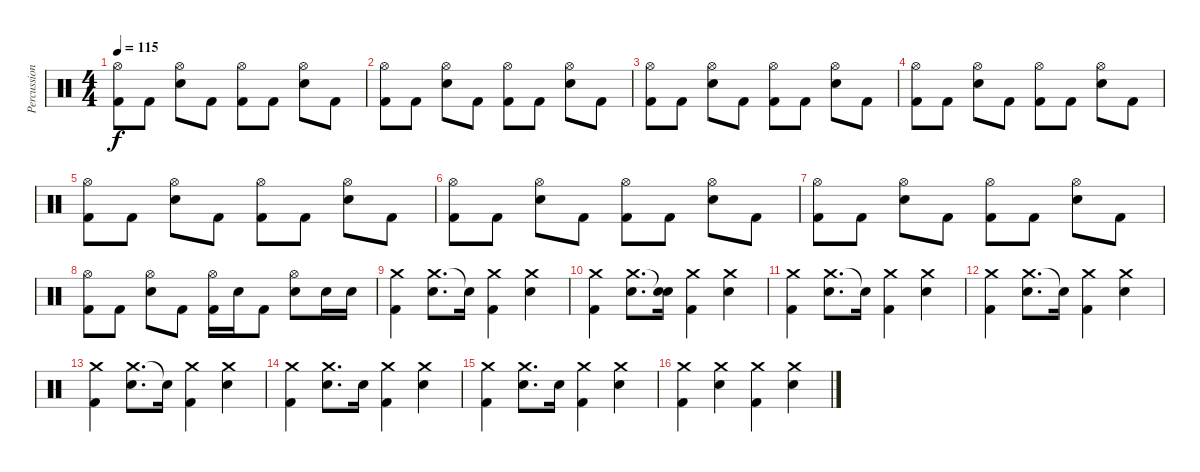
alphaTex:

\track ("Percussions" "Percussion") {instrument percussion}
\staff {score}
\articulation defaults
\ts (4 4)
\tempo 115
\clef neutral
\ks c
("Hi-Hat (open)" "Kick (hit) 2").8{dy f} "Kick (hit) 2".8 ("Hi-Hat (open)" "Electric Snare (hit)").8 "Kick (hit) 2".8 ("Hi-Hat (open)" "Kick (hit) 2").8 "Kick (hit) 2".8 ("Hi-Hat (open)" "Electric Snare (hit)").8 "Kick (hit) 2".8 |
("Hi-Hat (open)" "Kick (hit) 2").8 "Kick (hit) 2".8 ("Hi-Hat (open)" "Electric Snare (hit)").8 "Kick (hit) 2".8 ("Hi-Hat (open)" "Kick (hit) 2").8 "Kick (hit) 2".8 ("Hi-Hat (open)" "Electric Snare (hit)").8 "Kick (hit) 2".8 |
("Hi-Hat (open)" "Kick (hit) 2").8 "Kick (hit) 2".8 ("Hi-Hat (open)" "Electric Snare (hit)").8 "Kick (hit) 2".8 ("Hi-Hat (open)" "Kick (hit) 2").8 "Kick (hit) 2".8 ("Hi-Hat (open)" "Electric Snare (hit)").8 "Kick (hit) 2".8 |
("Hi-Hat (open)" "Kick (hit) 2").8 "Kick (hit) 2".8 ("Hi-Hat (open)" "Electric Snare (hit)").8 "Kick (hit) 2".8 ("Hi-Hat (open)" "Kick (hit) 2").8 "Kick (hit) 2".8 ("Hi-Hat (open)" "Electric Snare (hit)").8 "Kick (hit) 2".8 |
("Hi-Hat (open)" "Kick (hit) 2").8 "Kick (hit) 2".8 ("Hi-Hat (open)" "Electric Snare (hit)").8 "Kick (hit) 2".8 ("Hi-Hat (open)" "Kick (hit) 2").8 "Kick (hit) 2".8 ("Hi-Hat (open)" "Electric Snare (hit)").8 "Kick (hit) 2".8 |
("Hi-Hat (open)" "Kick (hit) 2").8 "Kick (hit) 2".8 ("Hi-Hat (open)" "Electric Snare (hit)").8 "Kick (hit) 2".8 ("Hi-Hat (open)" "Kick (hit) 2").8 "Kick (hit) 2".8 ("Hi-Hat (open)" "Electric Snare (hit)").8 "Kick (hit) 2".8 |
("Hi-Hat (open)" "Kick (hit) 2").8 "Kick (hit) 2".8 ("Hi-Hat (open)" "Electric Snare (hit)").8 "Kick (hit) 2".8 ("Hi-Hat (open)" "Kick (hit) 2").8 "Kick (hit) 2".8 ("Hi-Hat (open)" "Electric Snare (hit)").8 "Kick (hit) 2".8 |
("Hi-Hat (open)" "Kick (hit) 2").8 "Kick (hit) 2".8 ("Hi-Hat (open)" "Electric Snare (hit)").8 "Kick (hit) 2".8 ("Hi-Hat (open)" "Kick (hit) 2").16 "Electric Snare (hit)".16 "Kick (hit) 2".8 ("Hi-Hat (open)" "Electric Snare (hit)").8 "Electric Snare (hit)".16 "Electric Snare (hit)".16 |
("Crash medium (hit)" "Kick (hit) 2").4 ("Crash medium (hit)" "Electric Snare (hit)").8{d} "Snare (hit)"{t}.16 ("Crash medium (hit)" "Kick (hit) 2").4 ("Crash medium (hit)" "Electric Snare (hit)").4 |
("Crash medium (hit)" "Kick (hit) 2").4 ("Crash medium (hit)" "Electric Snare (hit)").8{d} ("Snare (hit)"{t} "Electric Snare (hit)").16 ("Crash medium (hit)" "Kick (hit) 2").4 ("Crash medium (hit)" "Electric Snare (hit)").4 |
("Crash medium (hit)" "Kick (hit) 2").4 ("Crash medium (hit)" "Electric Snare (hit)").8{d} "Snare (hit)"{t}.16 ("Crash medium (hit)" "Kick (hit) 2").4 ("Crash medium (hit)" "Electric Snare (hit)").4 |
("Crash medium (hit)" "Kick (hit) 2").4 ("Crash medium (hit)" "Electric Snare (hit)").8{d} "Snare (hit)"{t}.16 ("Crash medium (hit)" "Kick (hit) 2").4 ("Crash medium (hit)" "Electric Snare (hit)").4 |
("Crash medium (hit)" "Kick (hit) 2").4 ("Crash medium (hit)" "Electric Snare (hit)").8{d} "Snare (hit)"{t}.16 ("Crash medium (hit)" "Kick (hit) 2").4 ("Crash medium (hit)" "Electric Snare (hit)").4 |
("Crash medium (hit)" "Kick (hit) 2").4 ("Crash medium (hit)" "Electric Snare (hit)").8{d} "Electric Snare (hit)".16 ("Crash medium (hit)" "Kick (hit) 2").4 ("Crash medium (hit)" "Electric Snare (hit)").4 |
("Crash medium (hit)" "Kick (hit) 2").4 ("Crash medium (hit)" "Electric Snare (hit)").8{d} "Electric Snare (hit)".16 ("Crash medium (hit)" "Kick (hit) 2").4 ("Crash medium (hit)" "Electric Snare (hit)").4 |
("Crash medium (hit)" "Kick (hit) 2").4 ("Crash medium (hit)" "Electric Snare (hit)").4 ("Crash medium (hit)" "Kick (hit) 2").4 ("Crash medium (hit)" "Electric Snare (hit)").4
